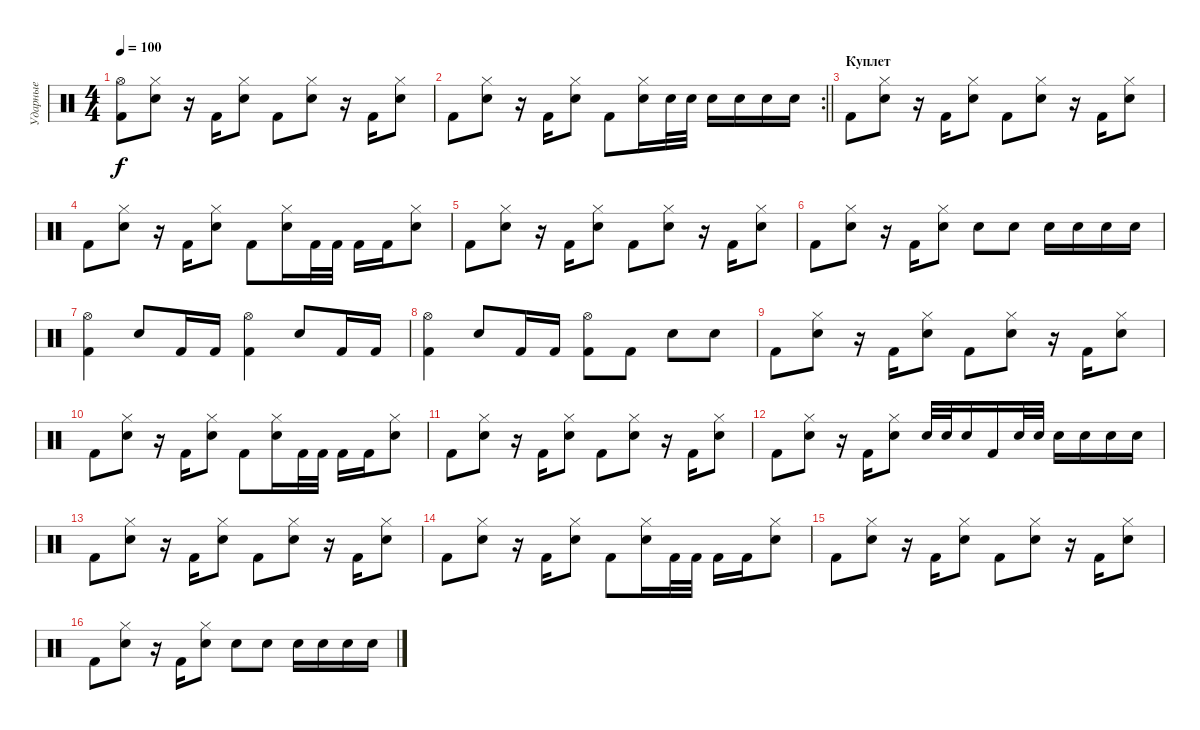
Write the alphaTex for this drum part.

\track ("Ударные" "Ударные") {instrument percussion}
\staff {score}
\articulation defaults
\ts (4 4)
\tempo 100
\clef neutral
\ks c
("Hi-Hat (open)" "Kick (hit) 2").8{dy f} ("Hi-Hat (closed)" "Snare (hit) 2").8 r.16 "Kick (hit) 2".16 ("Hi-Hat (closed)" "Snare (hit) 2").8 "Kick (hit) 2".8 ("Hi-Hat (closed)" "Snare (hit) 2").8 r.16 "Kick (hit) 2".16 ("Hi-Hat (closed)" "Snare (hit) 2").8 |
\rc 2
\barLineRight lightlight "Kick (hit) 2".8
("Hi-Hat (closed)" "Snare (hit) 2").8 r.16 "Kick (hit) 2".16 ("Hi-Hat (closed)" "Snare (hit) 2").8 "Kick (hit) 2".8 ("Hi-Hat (closed)" "Snare (hit) 2").16 "Snare (hit) 2".32 "Snare (hit) 2".32 "Snare (hit) 2".16 "Snare (hit) 2".16 "Snare (hit) 2".16 "Snare (hit) 2".16 |
\section ("" "Куплет")
"Kick (hit) 2".8 ("Hi-Hat (closed)" "Snare (hit) 2").8 r.16 "Kick (hit) 2".16 ("Hi-Hat (closed)" "Snare (hit) 2").8 "Kick (hit) 2".8 ("Hi-Hat (closed)" "Snare (hit) 2").8 r.16 "Kick (hit) 2".16 ("Hi-Hat (closed)" "Snare (hit) 2").8 |
"Kick (hit) 2".8 ("Hi-Hat (closed)" "Snare (hit) 2").8 r.16 "Kick (hit) 2".16 ("Hi-Hat (closed)" "Snare (hit) 2").8 "Kick (hit) 2".8 ("Hi-Hat (closed)" "Snare (hit) 2").16 "Kick (hit) 2".32 "Kick (hit) 2".32 "Kick (hit) 2".16 "Kick (hit) 2".16 ("Hi-Hat (closed)" "Snare (hit) 2").8 |
"Kick (hit) 2".8 ("Hi-Hat (closed)" "Snare (hit) 2").8 r.16 "Kick (hit) 2".16 ("Hi-Hat (closed)" "Snare (hit) 2").8 "Kick (hit) 2".8 ("Hi-Hat (closed)" "Snare (hit) 2").8 r.16 "Kick (hit) 2".16 ("Hi-Hat (closed)" "Snare (hit) 2").8 |
"Kick (hit) 2".8 ("Hi-Hat (closed)" "Snare (hit) 2").8 r.16 "Kick (hit) 2".16 ("Hi-Hat (closed)" "Snare (hit) 2").8 "Snare (hit) 2".8 "Snare (hit) 2".8 "Snare (hit) 2".16 "Snare (hit) 2".16 "Snare (hit) 2".16 "Snare (hit) 2".16 |
("Hi-Hat (open)" "Kick (hit) 2").4 "Snare (hit) 2".8 "Kick (hit) 2".16 "Kick (hit) 2".16 ("Hi-Hat (open)" "Kick (hit) 2").4 "Snare (hit) 2".8 "Kick (hit) 2".16 "Kick (hit) 2".16 |
("Hi-Hat (open)" "Kick (hit) 2").4 "Snare (hit) 2".8 "Kick (hit) 2".16 "Kick (hit) 2".16 ("Hi-Hat (open)" "Kick (hit) 2").8 "Kick (hit) 2".8 "Snare (hit) 2".8 "Snare (hit) 2".8 |
"Kick (hit) 2".8 ("Hi-Hat (closed)" "Snare (hit) 2").8 r.16 "Kick (hit) 2".16 ("Hi-Hat (closed)" "Snare (hit) 2").8 "Kick (hit) 2".8 ("Hi-Hat (closed)" "Snare (hit) 2").8 r.16 "Kick (hit) 2".16 ("Hi-Hat (closed)" "Snare (hit) 2").8 |
"Kick (hit) 2".8 ("Hi-Hat (closed)" "Snare (hit) 2").8 r.16 "Kick (hit) 2".16 ("Hi-Hat (closed)" "Snare (hit) 2").8 "Kick (hit) 2".8 ("Hi-Hat (closed)" "Snare (hit) 2").16 "Kick (hit) 2".32 "Kick (hit) 2".32 "Kick (hit) 2".16 "Kick (hit) 2".16 ("Hi-Hat (closed)" "Snare (hit) 2").8 |
"Kick (hit) 2".8 ("Hi-Hat (closed)" "Snare (hit) 2").8 r.16 "Kick (hit) 2".16 ("Hi-Hat (closed)" "Snare (hit) 2").8 "Kick (hit) 2".8 ("Hi-Hat (closed)" "Snare (hit) 2").8 r.16 "Kick (hit) 2".16 ("Hi-Hat (closed)" "Snare (hit) 2").8 |
"Kick (hit) 2".8 ("Hi-Hat (closed)" "Snare (hit) 2").8 r.16 "Kick (hit) 2".16 ("Hi-Hat (closed)" "Snare (hit) 2").8 "Snare (hit) 2".32 "Snare (hit) 2".32 "Snare (hit) 2".16 "Kick (hit) 2".16 "Snare (hit) 2".32 "Snare (hit) 2".32 "Snare (hit) 2".16 "Snare (hit) 2".16 "Snare (hit) 2".16 "Snare (hit) 2".16 |
"Kick (hit) 2".8 ("Hi-Hat (closed)" "Snare (hit) 2").8 r.16 "Kick (hit) 2".16 ("Hi-Hat (closed)" "Snare (hit) 2").8 "Kick (hit) 2".8 ("Hi-Hat (closed)" "Snare (hit) 2").8 r.16 "Kick (hit) 2".16 ("Hi-Hat (closed)" "Snare (hit) 2").8 |
"Kick (hit) 2".8 ("Hi-Hat (closed)" "Snare (hit) 2").8 r.16 "Kick (hit) 2".16 ("Hi-Hat (closed)" "Snare (hit) 2").8 "Kick (hit) 2".8 ("Hi-Hat (closed)" "Snare (hit) 2").16 "Kick (hit) 2".32 "Kick (hit) 2".32 "Kick (hit) 2".16 "Kick (hit) 2".16 ("Hi-Hat (closed)" "Snare (hit) 2").8 |
"Kick (hit) 2".8 ("Hi-Hat (closed)" "Snare (hit) 2").8 r.16 "Kick (hit) 2".16 ("Hi-Hat (closed)" "Snare (hit) 2").8 "Kick (hit) 2".8 ("Hi-Hat (closed)" "Snare (hit) 2").8 r.16 "Kick (hit) 2".16 ("Hi-Hat (closed)" "Snare (hit) 2").8 |
"Kick (hit) 2".8 ("Hi-Hat (closed)" "Snare (hit) 2").8 r.16 "Kick (hit) 2".16 ("Hi-Hat (closed)" "Snare (hit) 2").8 "Snare (hit) 2".8 "Snare (hit) 2".8 "Snare (hit) 2".16 "Snare (hit) 2".16 "Snare (hit) 2".16 "Snare (hit) 2".16
